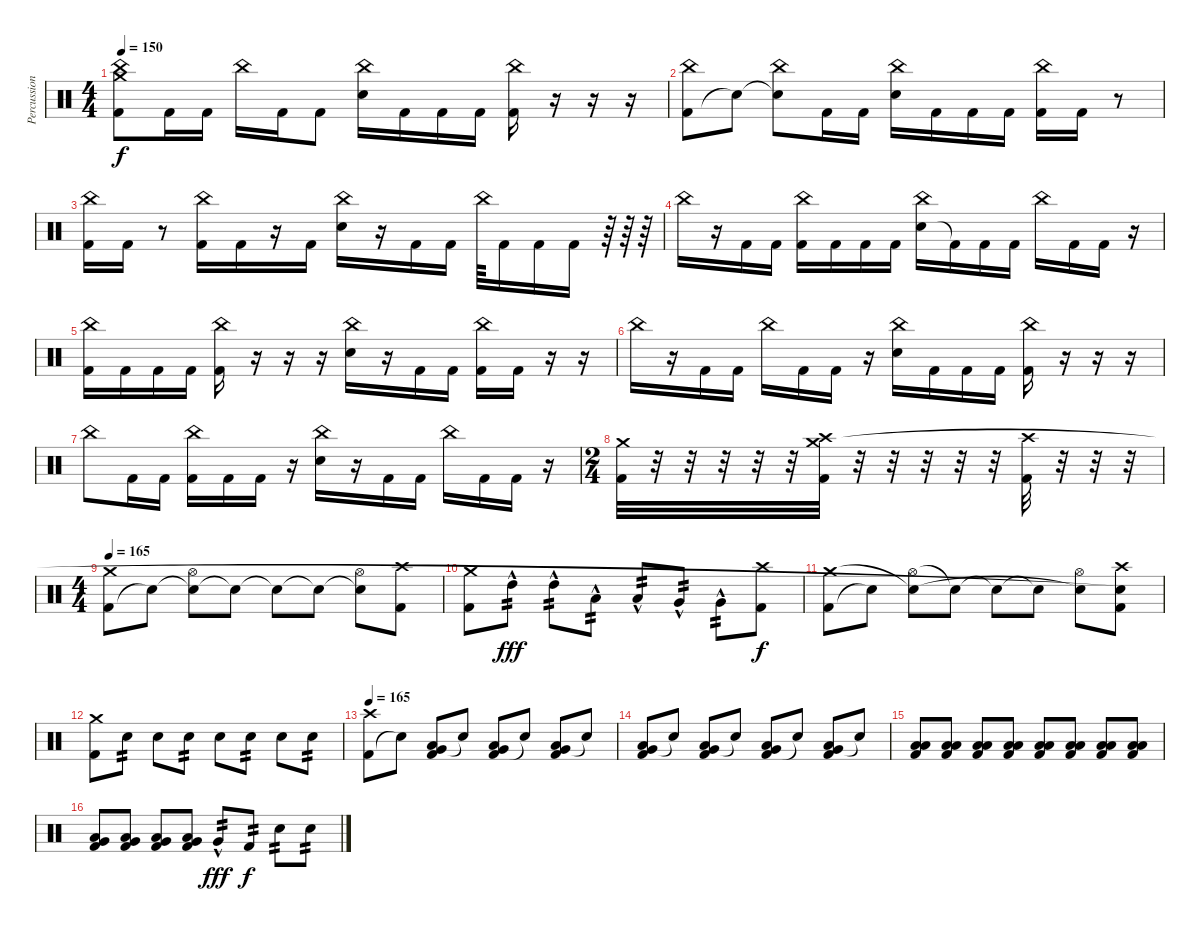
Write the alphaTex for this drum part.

\track ("Percussion" "Percussion") {instrument percussion}
\staff {score}
\articulation defaults
\ts (4 4)
\tempo 150
\clef neutral
\ks c
("China (hit)" "Kick (hit) 2" "Crash medium (hit)").8{dy f} "Kick (hit) 2".16 "Kick (hit) 2".16 "China (hit)".16 "Kick (hit) 2".16 "Kick (hit) 2".8 ("China (hit)" "Snare (hit) 2").16 "Kick (hit) 2".16 "Kick (hit) 2".16 "Kick (hit) 2".16 ("China (hit)" "Kick (hit) 2").16 r.16 r.16 r.16 |
("Kick (hit) 2" "China (hit)").8 "Snare (hit)"{t}.8 ("Snare (hit)"{t} "China (hit)").8 "Kick (hit) 2".16 "Kick (hit) 2".16 ("Snare (hit) 2" "China (hit)").16 "Kick (hit) 2".16 "Kick (hit) 2".16 "Kick (hit) 2".16 ("Kick (hit) 2" "China (hit)").16 "Kick (hit) 2".16 r.8 |
("Kick (hit) 2" "China (hit)").16 "Kick (hit) 2".16 r.8 ("Kick (hit) 2" "China (hit)").16 "Kick (hit) 2".16 r.16 "Kick (hit) 2".16 ("Snare (hit) 2" "China (hit)").16 r.16 "Kick (hit) 2".16 "Kick (hit) 2".16 "China (hit)".64 "Kick (hit) 2".16 "Kick (hit) 2".16 "Kick (hit) 2".16 r.64 r.64 r.64 |
"China (hit)".16 r.16 "Kick (hit) 2".16 "Kick (hit) 2".16 ("Kick (hit) 2" "China (hit)").16 "Kick (hit) 2".16 "Kick (hit) 2".16 "Kick (hit) 2".16 ("Snare (hit) 2" "China (hit)").16 "Kick (hit) 2"{t}.16 "Kick (hit) 2".16 "Kick (hit) 2".16 "China (hit)".16 "Kick (hit) 2".16 "Kick (hit) 2".16 r.16 |
("Kick (hit) 2" "China (hit)").16 "Kick (hit) 2".16 "Kick (hit) 2".16 "Kick (hit) 2".16 ("Kick (hit) 2" "China (hit)").16 r.16 r.16 r.16 ("Snare (hit) 2" "China (hit)").16 r.16 "Kick (hit) 2".16 "Kick (hit) 2".16 ("Kick (hit) 2" "China (hit)").16 "Kick (hit) 2".16 r.16 r.16 |
"China (hit)".16 r.16 "Kick (hit) 2".16 "Kick (hit) 2".16 "China (hit)".16 "Kick (hit) 2".16 "Kick (hit) 2".16 r.16 ("Snare (hit) 2" "China (hit)").16 "Kick (hit) 2".16 "Kick (hit) 2".16 "Kick (hit) 2".16 ("Kick (hit) 2" "China (hit)").16 r.16 r.16 r.16 |
"China (hit)".8 "Kick (hit) 2".16 "Kick (hit) 2".16 ("Kick (hit) 2" "China (hit)").16 "Kick (hit) 2".16 "Kick (hit) 2".16 r.16 ("China (hit)" "Snare (hit) 2").16 r.16 "Kick (hit) 2".16 "Kick (hit) 2".16 "China (hit)".16 "Kick (hit) 2".16 "Kick (hit) 2".16 r.16 |
\ts (2 4)
("Crash medium (hit)" "Kick (hit) 2").32 r.32 r.32 r.32 r.32 r.32 ("Kick (hit) 2" "Crash high (hit)" "Crash medium (hit)").32 r.32 r.32 r.32 r.32 r.32 ("Kick (hit) 2" "Crash high (hit)").32 r.32 r.32 r.32 |
\ts (4 4)
\tempo 165
("Kick (hit) 2" "Crash medium (hit)").8 "Snare (hit)"{t}.8 ("Snare (hit)"{t} "Hi-Hat (open)").8 "Snare (hit)"{t}.8 "Snare (hit)"{t}.8 "Snare (hit)"{t}.8 ("Snare (hit)"{t} "Hi-Hat (open)").8 ("Crash high (hit)" "Kick (hit) 2").8 |
("Crash medium (hit)" "Kick (hit) 2").8 "High Tom (hit)"{hac}.8{tp 2 dy fff} "High Tom (hit)"{hac}.8{tp 2} "Low Tom (hit)"{hac}.8{tp 2} "Low Tom (hit)"{hac}.8{tp 2} "Very Low Tom (hit)"{hac}.8{tp 2} "Very Low Tom (hit)"{hac}.8{tp 2} ("Crash high (hit)" "Kick (hit) 2").8{dy f} |
("Kick (hit) 2" "Crash medium (hit)").8 "Snare (hit)"{t}.8 ("Hi-Hat (open)" "Snare (hit)"{t}).8 "Snare (hit)"{t}.8 "Snare (hit)"{t}.8 "Snare (hit)"{t}.8 ("Hi-Hat (open)" "Snare (hit)"{t}).8 ("Crash high (hit)" "Kick (hit) 2" "Snare (hit)"{t}).8 |
("Crash medium (hit)" "Kick (hit) 2").8 "Snare (hit) 2".8{tp 2} "Snare (hit) 2".8 "Snare (hit) 2".8{tp 2} "Snare (hit) 2".8 "Snare (hit) 2".8{tp 2} "Snare (hit) 2".8 "Snare (hit) 2".8{tp 2} |
\tempo 165
("Kick (hit) 2" "Crash high (hit)").8 "Snare (hit)"{t}.8 ("Very Low Tom (hit)" "Kick (hit) 2" "Low Floor Tom (hit)").8 "Snare (hit)"{t}.8 ("Kick (hit) 2" "Low Floor Tom (hit)" "Very Low Tom (hit)").8 "Snare (hit)"{t}.8 ("Very Low Tom (hit)" "Kick (hit) 2" "Low Floor Tom (hit)").8 "Snare (hit)"{t}.8 |
("Very Low Tom (hit)" "Kick (hit) 2" "Low Floor Tom (hit)").8 "Snare (hit)"{t}.8 ("Very Low Tom (hit)" "Kick (hit) 2" "Low Floor Tom (hit)").8 "Snare (hit)"{t}.8 ("Kick (hit) 2" "Very Low Tom (hit)" "Low Floor Tom (hit)").8 "Snare (hit)"{t}.8 ("Very Low Tom (hit)" "Kick (hit) 2" "Low Floor Tom (hit)").8 "Snare (hit)"{t}.8 |
("Low Tom (hit)" "Kick (hit) 2" "Low Floor Tom (hit)").8 ("Low Tom (hit)" "Kick (hit) 2" "Low Floor Tom (hit)").8 ("Low Tom (hit)" "Kick (hit) 2" "Low Floor Tom (hit)").8 ("Low Tom (hit)" "Kick (hit) 2" "Low Floor Tom (hit)").8 ("Low Tom (hit)" "Kick (hit) 2" "Low Floor Tom (hit)").8 ("Low Tom (hit)" "Kick (hit) 2" "Low Floor Tom (hit)").8 ("Low Tom (hit)" "Kick (hit) 2" "Low Floor Tom (hit)").8 ("Low Tom (hit)" "Kick (hit) 2" "Low Floor Tom (hit)").8 |
("Kick (hit) 2" "Very Low Tom (hit)" "Low Floor Tom (hit)").8 ("Kick (hit) 2" "Very Low Tom (hit)" "Low Floor Tom (hit)").8 ("Kick (hit) 2" "Very Low Tom (hit)" "Low Floor Tom (hit)").8 ("Kick (hit) 2" "Very Low Tom (hit)" "Low Floor Tom (hit)").8 "Very Low Tom (hit)"{hac}.8{tp 2 dy fff} "Kick (hit) 2".8{tp 2 dy f} "Snare (hit) 2".8{tp 2} "Snare (hit) 2".8{tp 2}
